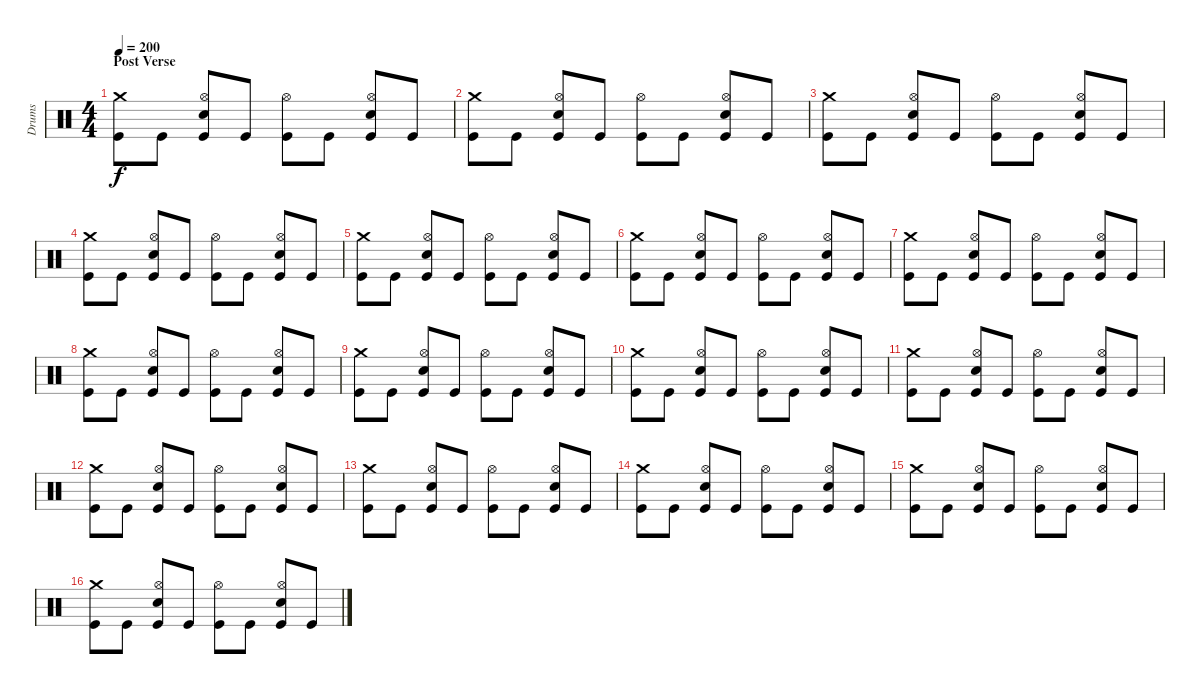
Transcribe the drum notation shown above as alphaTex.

\track ("Drums" "Drums") {instrument percussion}
\staff {score}
\articulation defaults
\ts (4 4)
\section ("" "Post Verse")
\tempo 200
\clef neutral
\ks c
("Crash medium (hit)" "Kick (hit)").8{dy f} "Kick (hit)".8 ("Hi-Hat (open)" "Electric Snare (hit)" "Kick (hit)").8 "Kick (hit)".8 ("Hi-Hat (open)" "Kick (hit)").8 "Kick (hit)".8 ("Hi-Hat (open)" "Electric Snare (hit)" "Kick (hit)").8 "Kick (hit)".8 |
("Crash medium (hit)" "Kick (hit)").8 "Kick (hit)".8 ("Hi-Hat (open)" "Electric Snare (hit)" "Kick (hit)").8 "Kick (hit)".8 ("Hi-Hat (open)" "Kick (hit)").8 "Kick (hit)".8 ("Hi-Hat (open)" "Electric Snare (hit)" "Kick (hit)").8 "Kick (hit)".8 |
("Crash medium (hit)" "Kick (hit)").8 "Kick (hit)".8 ("Hi-Hat (open)" "Electric Snare (hit)" "Kick (hit)").8 "Kick (hit)".8 ("Hi-Hat (open)" "Kick (hit)").8 "Kick (hit)".8 ("Hi-Hat (open)" "Electric Snare (hit)" "Kick (hit)").8 "Kick (hit)".8 |
("Crash medium (hit)" "Kick (hit)").8 "Kick (hit)".8 ("Hi-Hat (open)" "Electric Snare (hit)" "Kick (hit)").8 "Kick (hit)".8 ("Hi-Hat (open)" "Kick (hit)").8 "Kick (hit)".8 ("Hi-Hat (open)" "Electric Snare (hit)" "Kick (hit)").8 "Kick (hit)".8 |
("Crash medium (hit)" "Kick (hit)").8 "Kick (hit)".8 ("Hi-Hat (open)" "Electric Snare (hit)" "Kick (hit)").8 "Kick (hit)".8 ("Hi-Hat (open)" "Kick (hit)").8 "Kick (hit)".8 ("Hi-Hat (open)" "Electric Snare (hit)" "Kick (hit)").8 "Kick (hit)".8 |
("Crash medium (hit)" "Kick (hit)").8 "Kick (hit)".8 ("Hi-Hat (open)" "Electric Snare (hit)" "Kick (hit)").8 "Kick (hit)".8 ("Hi-Hat (open)" "Kick (hit)").8 "Kick (hit)".8 ("Hi-Hat (open)" "Electric Snare (hit)" "Kick (hit)").8 "Kick (hit)".8 |
("Crash medium (hit)" "Kick (hit)").8 "Kick (hit)".8 ("Hi-Hat (open)" "Electric Snare (hit)" "Kick (hit)").8 "Kick (hit)".8 ("Hi-Hat (open)" "Kick (hit)").8 "Kick (hit)".8 ("Hi-Hat (open)" "Electric Snare (hit)" "Kick (hit)").8 "Kick (hit)".8 |
("Crash medium (hit)" "Kick (hit)").8 "Kick (hit)".8 ("Hi-Hat (open)" "Electric Snare (hit)" "Kick (hit)").8 "Kick (hit)".8 ("Hi-Hat (open)" "Kick (hit)").8 "Kick (hit)".8 ("Hi-Hat (open)" "Electric Snare (hit)" "Kick (hit)").8 "Kick (hit)".8 |
("Crash medium (hit)" "Kick (hit)").8 "Kick (hit)".8 ("Hi-Hat (open)" "Electric Snare (hit)" "Kick (hit)").8 "Kick (hit)".8 ("Hi-Hat (open)" "Kick (hit)").8 "Kick (hit)".8 ("Hi-Hat (open)" "Electric Snare (hit)" "Kick (hit)").8 "Kick (hit)".8 |
("Crash medium (hit)" "Kick (hit)").8 "Kick (hit)".8 ("Hi-Hat (open)" "Electric Snare (hit)" "Kick (hit)").8 "Kick (hit)".8 ("Hi-Hat (open)" "Kick (hit)").8 "Kick (hit)".8 ("Hi-Hat (open)" "Electric Snare (hit)" "Kick (hit)").8 "Kick (hit)".8 |
("Crash medium (hit)" "Kick (hit)").8 "Kick (hit)".8 ("Hi-Hat (open)" "Electric Snare (hit)" "Kick (hit)").8 "Kick (hit)".8 ("Hi-Hat (open)" "Kick (hit)").8 "Kick (hit)".8 ("Hi-Hat (open)" "Electric Snare (hit)" "Kick (hit)").8 "Kick (hit)".8 |
("Crash medium (hit)" "Kick (hit)").8 "Kick (hit)".8 ("Hi-Hat (open)" "Electric Snare (hit)" "Kick (hit)").8 "Kick (hit)".8 ("Hi-Hat (open)" "Kick (hit)").8 "Kick (hit)".8 ("Hi-Hat (open)" "Electric Snare (hit)" "Kick (hit)").8 "Kick (hit)".8 |
("Crash medium (hit)" "Kick (hit)").8 "Kick (hit)".8 ("Hi-Hat (open)" "Electric Snare (hit)" "Kick (hit)").8 "Kick (hit)".8 ("Hi-Hat (open)" "Kick (hit)").8 "Kick (hit)".8 ("Hi-Hat (open)" "Electric Snare (hit)" "Kick (hit)").8 "Kick (hit)".8 |
("Crash medium (hit)" "Kick (hit)").8 "Kick (hit)".8 ("Hi-Hat (open)" "Electric Snare (hit)" "Kick (hit)").8 "Kick (hit)".8 ("Hi-Hat (open)" "Kick (hit)").8 "Kick (hit)".8 ("Hi-Hat (open)" "Electric Snare (hit)" "Kick (hit)").8 "Kick (hit)".8 |
("Crash medium (hit)" "Kick (hit)").8 "Kick (hit)".8 ("Hi-Hat (open)" "Electric Snare (hit)" "Kick (hit)").8 "Kick (hit)".8 ("Hi-Hat (open)" "Kick (hit)").8 "Kick (hit)".8 ("Hi-Hat (open)" "Electric Snare (hit)" "Kick (hit)").8 "Kick (hit)".8 |
("Crash medium (hit)" "Kick (hit)").8 "Kick (hit)".8 ("Hi-Hat (open)" "Electric Snare (hit)" "Kick (hit)").8 "Kick (hit)".8 ("Hi-Hat (open)" "Kick (hit)").8 "Kick (hit)".8 ("Hi-Hat (open)" "Electric Snare (hit)" "Kick (hit)").8 "Kick (hit)".8
